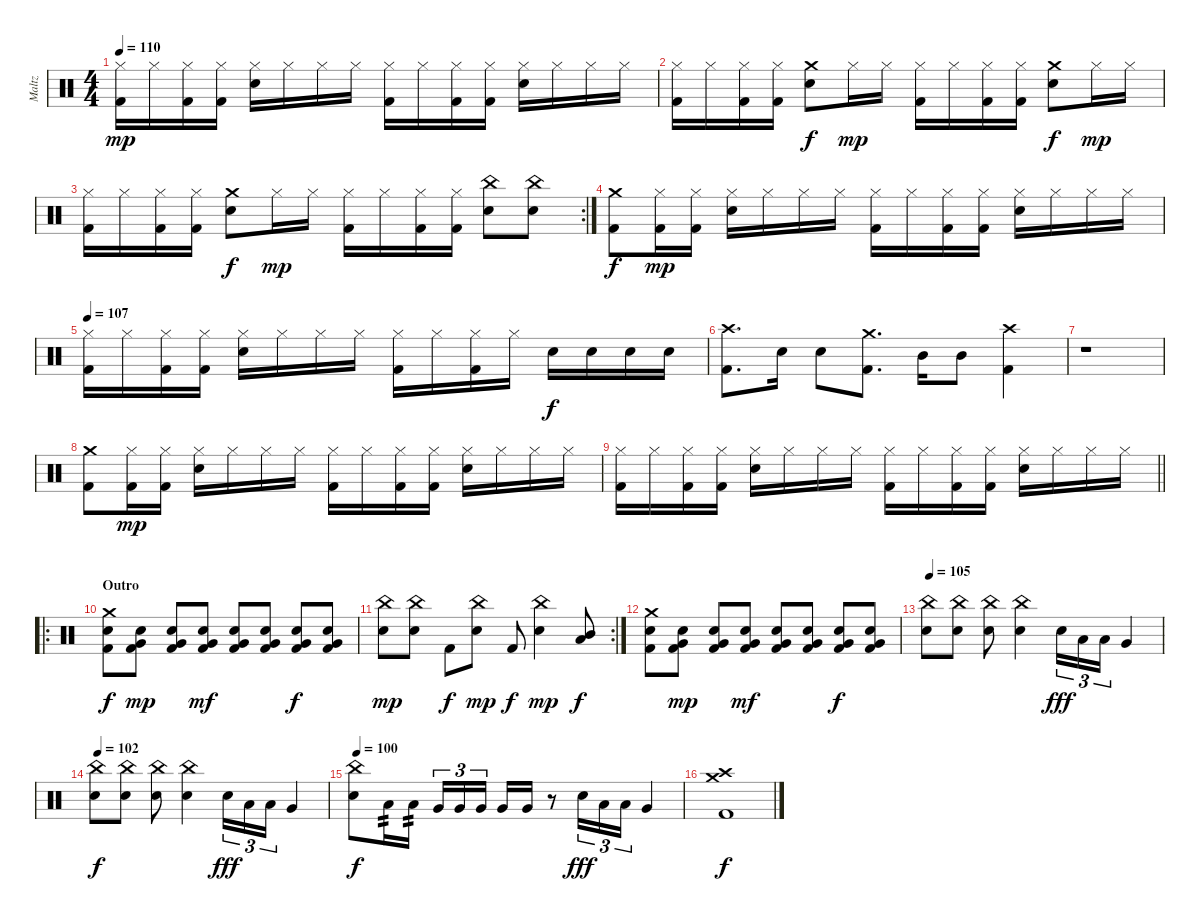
\track ("Maltz" "Maltz") {instrument percussion}
\staff {score}
\articulation defaults
\ts (4 4)
\tempo 110
\clef neutral
\ks c
("Hi-Hat (closed)" "Kick (hit) 2").16{dy mp} "Hi-Hat (closed)".16 ("Hi-Hat (closed)" "Kick (hit) 2").16 ("Hi-Hat (closed)" "Kick (hit) 2").16 ("Hi-Hat (closed)" "Snare (hit) 2").16 "Hi-Hat (closed)".16 "Hi-Hat (closed)".16 "Hi-Hat (closed)".16 ("Hi-Hat (closed)" "Kick (hit) 2").16 "Hi-Hat (closed)".16 ("Hi-Hat (closed)" "Kick (hit) 2").16 ("Hi-Hat (closed)" "Kick (hit) 2").16 ("Hi-Hat (closed)" "Snare (hit) 2").16 "Hi-Hat (closed)".16 "Hi-Hat (closed)".16 "Hi-Hat (closed)".16 |
("Hi-Hat (closed)" "Kick (hit) 2").16 "Hi-Hat (closed)".16 ("Hi-Hat (closed)" "Kick (hit) 2").16 ("Hi-Hat (closed)" "Kick (hit) 2").16 ("Crash medium (hit)" "Snare (hit) 2").8{dy f} "Hi-Hat (closed)".16{dy mp} "Hi-Hat (closed)".16 ("Hi-Hat (closed)" "Kick (hit) 2").16 "Hi-Hat (closed)".16 ("Hi-Hat (closed)" "Kick (hit) 2").16 ("Hi-Hat (closed)" "Kick (hit) 2").16 ("Crash medium (hit)" "Snare (hit) 2").8{dy f} "Hi-Hat (closed)".16{dy mp} "Hi-Hat (closed)".16 |
\rc 2
("Hi-Hat (closed)" "Kick (hit) 2").16 "Hi-Hat (closed)".16 ("Hi-Hat (closed)" "Kick (hit) 2").16 ("Hi-Hat (closed)" "Kick (hit) 2").16 ("Crash medium (hit)" "Snare (hit) 2").8{dy f} "Hi-Hat (closed)".16{dy mp} "Hi-Hat (closed)".16 ("Hi-Hat (closed)" "Kick (hit) 2").16 "Hi-Hat (closed)".16 ("Hi-Hat (closed)" "Kick (hit) 2").16 ("Hi-Hat (closed)" "Kick (hit) 2").16 ("China (hit)" "Snare (hit) 2").8 ("China (hit)" "Snare (hit) 2").8 |
("Crash medium (hit)" "Kick (hit) 2").8{dy f} ("Hi-Hat (closed)" "Kick (hit) 2").16{dy mp} ("Hi-Hat (closed)" "Kick (hit) 2").16 ("Hi-Hat (closed)" "Snare (hit) 2").16 "Hi-Hat (closed)".16 "Hi-Hat (closed)".16 "Hi-Hat (closed)".16 ("Hi-Hat (closed)" "Kick (hit) 2").16 "Hi-Hat (closed)".16 ("Hi-Hat (closed)" "Kick (hit) 2").16 ("Hi-Hat (closed)" "Kick (hit) 2").16 ("Hi-Hat (closed)" "Snare (hit) 2").16 "Hi-Hat (closed)".16 "Hi-Hat (closed)".16 "Hi-Hat (closed)".16 |
\tempo 107
("Hi-Hat (closed)" "Kick (hit) 2").16 "Hi-Hat (closed)".16 ("Hi-Hat (closed)" "Kick (hit) 2").16 ("Hi-Hat (closed)" "Kick (hit) 2").16 ("Hi-Hat (closed)" "Snare (hit) 2").16 "Hi-Hat (closed)".16 "Hi-Hat (closed)".16 "Hi-Hat (closed)".16 ("Hi-Hat (closed)" "Kick (hit) 2").16 "Hi-Hat (closed)".16 ("Hi-Hat (closed)" "Kick (hit) 2").16 "Hi-Hat (closed)".16 "Snare (hit) 2".16{dy f} "Snare (hit) 2".16 "Snare (hit) 2".16 "Snare (hit) 2".16 |
("Crash high (hit)" "Kick (hit) 2").8{d} "Snare (hit) 2".16 "Snare (hit) 2".8 ("Crash medium (hit)" "Kick (hit) 2").8{d} "Mid Tom (hit)".16 "Mid Tom (hit)".8 ("Crash high (hit)" "Kick (hit) 2").4 |
r.1 |
("Crash medium (hit)" "Kick (hit) 2").8 ("Hi-Hat (closed)" "Kick (hit) 2").16{dy mp} ("Hi-Hat (closed)" "Kick (hit) 2").16 ("Hi-Hat (closed)" "Snare (hit) 2").16 "Hi-Hat (closed)".16 "Hi-Hat (closed)".16 "Hi-Hat (closed)".16 ("Hi-Hat (closed)" "Kick (hit) 2").16 "Hi-Hat (closed)".16 ("Hi-Hat (closed)" "Kick (hit) 2").16 ("Hi-Hat (closed)" "Kick (hit) 2").16 ("Hi-Hat (closed)" "Snare (hit) 2").16 "Hi-Hat (closed)".16 "Hi-Hat (closed)".16 "Hi-Hat (closed)".16 |
\barLineRight lightlight
("Hi-Hat (closed)" "Kick (hit) 2").16 "Hi-Hat (closed)".16 ("Hi-Hat (closed)" "Kick (hit) 2").16 ("Hi-Hat (closed)" "Kick (hit) 2").16 ("Hi-Hat (closed)" "Snare (hit) 2").16 "Hi-Hat (closed)".16 "Hi-Hat (closed)".16 "Hi-Hat (closed)".16 ("Hi-Hat (closed)" "Kick (hit) 2").16 "Hi-Hat (closed)".16 ("Hi-Hat (closed)" "Kick (hit) 2").16 ("Hi-Hat (closed)" "Kick (hit) 2").16 ("Hi-Hat (closed)" "Snare (hit) 2").16 "Hi-Hat (closed)".16 "Hi-Hat (closed)".16 "Hi-Hat (closed)".16 |
\ro
\section ("" "Outro")
("Crash medium (hit)" "Snare (hit) 2" "Kick (hit) 2").8{dy f} ("Very Low Tom (hit)" "Snare (hit) 2" "Kick (hit) 2").8{dy mp} ("Very Low Tom (hit)" "Snare (hit) 2" "Kick (hit) 2").8 ("Very Low Tom (hit)" "Snare (hit) 2" "Kick (hit) 2").8{dy mf} ("Very Low Tom (hit)" "Snare (hit) 2" "Kick (hit) 2").8 ("Very Low Tom (hit)" "Snare (hit) 2" "Kick (hit) 2").8 ("Very Low Tom (hit)" "Snare (hit) 2" "Kick (hit) 2").8{dy f} ("Very Low Tom (hit)" "Snare (hit) 2" "Kick (hit) 2").8 |
\rc 2
("China (hit)" "Snare (hit) 2").8{dy mp} ("China (hit)" "Snare (hit) 2").8 "Kick (hit) 2".8{dy f} ("China (hit)" "Snare (hit) 2").8{dy mp} "Kick (hit) 2".8{dy f} ("China (hit)" "Snare (hit) 2").4{dy mp} ("Mid Tom (hit)" "Low Tom (hit)").8{dy f} |
("Crash medium (hit)" "Snare (hit) 2" "Kick (hit) 2").8 ("Very Low Tom (hit)" "Snare (hit) 2" "Kick (hit) 2").8{dy mp} ("Very Low Tom (hit)" "Snare (hit) 2" "Kick (hit) 2").8 ("Very Low Tom (hit)" "Snare (hit) 2" "Kick (hit) 2").8{dy mf} ("Very Low Tom (hit)" "Snare (hit) 2" "Kick (hit) 2").8 ("Very Low Tom (hit)" "Snare (hit) 2" "Kick (hit) 2").8 ("Very Low Tom (hit)" "Snare (hit) 2" "Kick (hit) 2").8{dy f} ("Very Low Tom (hit)" "Snare (hit) 2" "Kick (hit) 2").8 |
\tempo 105
("China (hit)" "Snare (hit) 2").8 ("China (hit)" "Snare (hit) 2").8 ("China (hit)" "Snare (hit) 2").8 ("China (hit)" "Snare (hit) 2").4 "Snare (hit) 2".16{tu (3 2) dy fff} "Low Tom (hit)".16{tu (3 2)} "Low Tom (hit)".16{tu (3 2)} "Very Low Tom (hit)".4 |
\tempo 102
("China (hit)" "Snare (hit) 2").8{dy f} ("China (hit)" "Snare (hit) 2").8 ("China (hit)" "Snare (hit) 2").8 ("China (hit)" "Snare (hit) 2").4 "Snare (hit) 2".16{tu (3 2) dy fff} "Low Tom (hit)".16{tu (3 2)} "Low Tom (hit)".16{tu (3 2)} "Very Low Tom (hit)".4 |
\tempo 100
("China (hit)" "Snare (hit) 2").8{dy f} "Low Tom (hit)".16{tp 2} "Low Tom (hit)".16{tp 2} "Very Low Tom (hit)".16{tu (3 2)} "Very Low Tom (hit)".16{tu (3 2)} "Very Low Tom (hit)".16{tu (3 2) beam splitsecondary} "Very Low Tom (hit)".16 "Very Low Tom (hit)".16 r.8 "Snare (hit) 2".16{tu (3 2) dy fff} "Low Tom (hit)".16{tu (3 2)} "Low Tom (hit)".16{tu (3 2)} "Very Low Tom (hit)".4 |
("Crash medium (hit)" "Crash high (hit)" "Kick (hit) 2").1{dy f}
